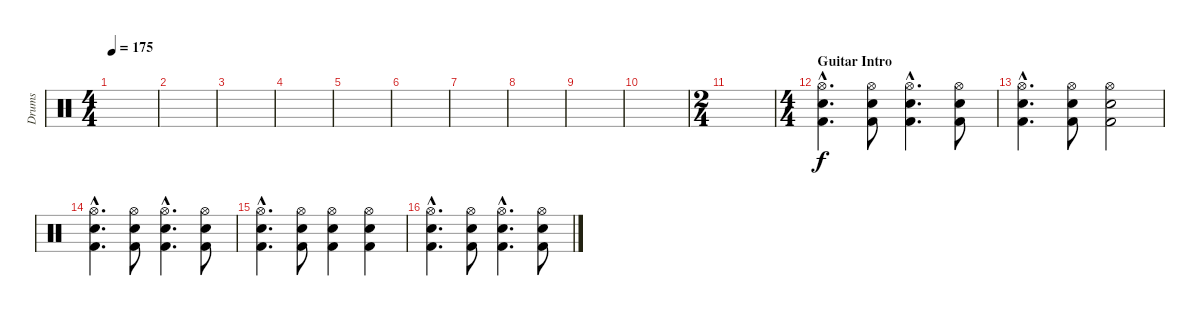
\track ("Drums" "Drums") {instrument percussion}
\staff {score}
\articulation defaults
\ts (4 4)
\tempo 175
\clef neutral
\ks c
|
|
|
|
|
|
|
|
|
|
\ts (2 4)
|
\ts (4 4)
\section ("" "Guitar Intro")
("Hi-Hat (open)"{hac} "Snare (hit) 2"{hac} "Kick (hit) 2"{hac}).4{d} ("Hi-Hat (open)" "Snare (hit) 2" "Kick (hit) 2").8 ("Hi-Hat (open)"{hac} "Snare (hit) 2"{hac} "Kick (hit) 2"{hac}).4{d} ("Hi-Hat (open)" "Snare (hit) 2" "Kick (hit) 2").8 |
("Hi-Hat (open)"{hac} "Snare (hit) 2"{hac} "Kick (hit) 2"{hac}).4{d} ("Hi-Hat (open)" "Snare (hit) 2" "Kick (hit) 2").8 ("Hi-Hat (open)" "Snare (hit) 2" "Kick (hit) 2").2 |
("Hi-Hat (open)"{hac} "Snare (hit) 2"{hac} "Kick (hit) 2"{hac}).4{d} ("Hi-Hat (open)" "Snare (hit) 2" "Kick (hit) 2").8 ("Hi-Hat (open)"{hac} "Snare (hit) 2"{hac} "Kick (hit) 2"{hac}).4{d} ("Hi-Hat (open)" "Snare (hit) 2" "Kick (hit) 2").8 |
("Hi-Hat (open)"{hac} "Snare (hit) 2"{hac} "Kick (hit) 2"{hac}).4{d} ("Hi-Hat (open)" "Snare (hit) 2" "Kick (hit) 2").8 ("Hi-Hat (open)" "Snare (hit) 2" "Kick (hit) 2").4 ("Hi-Hat (open)" "Snare (hit) 2" "Kick (hit) 2").4 |
("Hi-Hat (open)"{hac} "Snare (hit) 2"{hac} "Kick (hit) 2"{hac}).4{d} ("Hi-Hat (open)" "Snare (hit) 2" "Kick (hit) 2").8 ("Hi-Hat (open)"{hac} "Snare (hit) 2"{hac} "Kick (hit) 2"{hac}).4{d} ("Hi-Hat (open)" "Snare (hit) 2" "Kick (hit) 2").8
